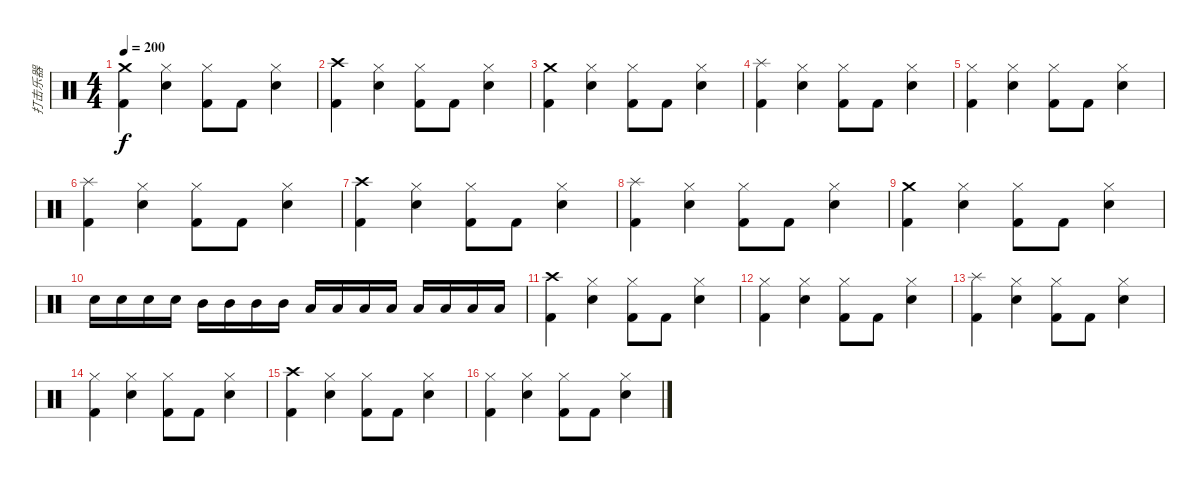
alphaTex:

\track ("打击乐器" "打击乐器") {instrument percussion}
\staff {score}
\articulation defaults
\ts (4 4)
\tempo 200
\clef neutral
\ks c
("Crash medium (hit)" "Kick (hit) 2").4{dy f} ("Hi-Hat (closed)" "Snare (hit) 2").4 ("Hi-Hat (closed)" "Kick (hit) 2").8 "Kick (hit) 2".8 ("Hi-Hat (closed)" "Snare (hit) 2").4 |
("Crash high (hit)" "Kick (hit) 2").4 ("Hi-Hat (closed)" "Snare (hit) 2").4 ("Hi-Hat (closed)" "Kick (hit) 2").8 "Kick (hit) 2".8 ("Hi-Hat (closed)" "Snare (hit) 2").4 |
("Crash medium (hit)" "Kick (hit) 2").4 ("Hi-Hat (closed)" "Snare (hit) 2").4 ("Hi-Hat (closed)" "Kick (hit) 2").8 "Kick (hit) 2".8 ("Hi-Hat (closed)" "Snare (hit) 2").4 |
("Splash (hit)" "Kick (hit) 2").4 ("Hi-Hat (closed)" "Snare (hit) 2").4 ("Hi-Hat (closed)" "Kick (hit) 2").8 "Kick (hit) 2".8 ("Hi-Hat (closed)" "Snare (hit) 2").4 |
("Hi-Hat (closed)" "Kick (hit) 2").4 ("Hi-Hat (closed)" "Snare (hit) 2").4 ("Hi-Hat (closed)" "Kick (hit) 2").8 "Kick (hit) 2".8 ("Hi-Hat (closed)" "Snare (hit) 2").4 |
("Splash (hit)" "Kick (hit) 2").4 ("Hi-Hat (closed)" "Snare (hit) 2").4 ("Hi-Hat (closed)" "Kick (hit) 2").8 "Kick (hit) 2".8 ("Hi-Hat (closed)" "Snare (hit) 2").4 |
("Crash high (hit)" "Kick (hit) 2").4 ("Hi-Hat (closed)" "Snare (hit) 2").4 ("Hi-Hat (closed)" "Kick (hit) 2").8 "Kick (hit) 2".8 ("Hi-Hat (closed)" "Snare (hit) 2").4 |
("Splash (hit)" "Kick (hit) 2").4 ("Hi-Hat (closed)" "Snare (hit) 2").4 ("Hi-Hat (closed)" "Kick (hit) 2").8 "Kick (hit) 2".8 ("Hi-Hat (closed)" "Snare (hit) 2").4 |
("Crash medium (hit)" "Kick (hit) 2").4 ("Hi-Hat (closed)" "Snare (hit) 2").4 ("Hi-Hat (closed)" "Kick (hit) 2").8 "Kick (hit) 2".8 ("Hi-Hat (closed)" "Snare (hit) 2").4 |
"Snare (hit) 2".16 "Snare (hit) 2".16 "Snare (hit) 2".16 "Snare (hit) 2".16 "Mid Tom (hit)".16 "Mid Tom (hit)".16 "Mid Tom (hit)".16 "Mid Tom (hit)".16 "Low Tom (hit)".16 "Low Tom (hit)".16 "Low Tom (hit)".16 "Low Tom (hit)".16 "Low Floor Tom (hit)".16 "Low Floor Tom (hit)".16 "Low Floor Tom (hit)".16 "Low Floor Tom (hit)".16 |
("Crash high (hit)" "Kick (hit) 2").4 ("Hi-Hat (closed)" "Snare (hit) 2").4 ("Hi-Hat (closed)" "Kick (hit) 2").8 "Kick (hit) 2".8 ("Hi-Hat (closed)" "Snare (hit) 2").4 |
("Hi-Hat (closed)" "Kick (hit) 2").4 ("Hi-Hat (closed)" "Snare (hit) 2").4 ("Hi-Hat (closed)" "Kick (hit) 2").8 "Kick (hit) 2".8 ("Hi-Hat (closed)" "Snare (hit) 2").4 |
("Splash (hit)" "Kick (hit) 2").4 ("Hi-Hat (closed)" "Snare (hit) 2").4 ("Hi-Hat (closed)" "Kick (hit) 2").8 "Kick (hit) 2".8 ("Hi-Hat (closed)" "Snare (hit) 2").4 |
("Hi-Hat (closed)" "Kick (hit) 2").4 ("Hi-Hat (closed)" "Snare (hit) 2").4 ("Hi-Hat (closed)" "Kick (hit) 2").8 "Kick (hit) 2".8 ("Hi-Hat (closed)" "Snare (hit) 2").4 |
("Crash high (hit)" "Kick (hit) 2").4 ("Hi-Hat (closed)" "Snare (hit) 2").4 ("Hi-Hat (closed)" "Kick (hit) 2").8 "Kick (hit) 2".8 ("Hi-Hat (closed)" "Snare (hit) 2").4 |
("Hi-Hat (closed)" "Kick (hit) 2").4 ("Hi-Hat (closed)" "Snare (hit) 2").4 ("Hi-Hat (closed)" "Kick (hit) 2").8 "Kick (hit) 2".8 ("Hi-Hat (closed)" "Snare (hit) 2").4
